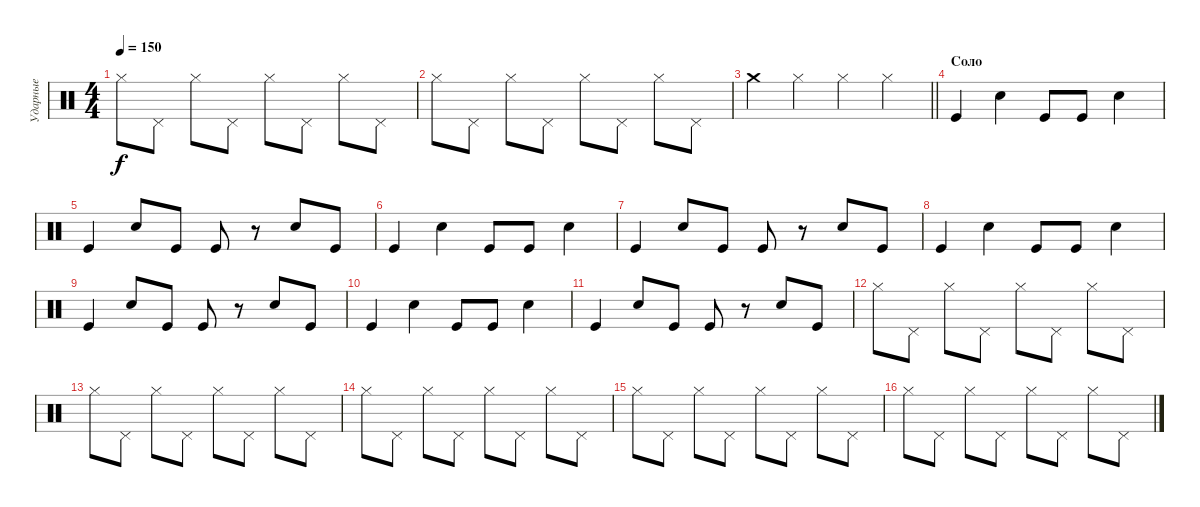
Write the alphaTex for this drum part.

\track ("Ударные" "Ударные") {instrument percussion}
\staff {score}
\articulation defaults
\ts (4 4)
\tempo 150
\clef neutral
\ks c "Hi-Hat (closed)".8{dy f} "Pedal Hi-Hat (hit)".8 "Hi-Hat (closed)".8 "Pedal Hi-Hat (hit)".8 "Hi-Hat (closed)".8 "Pedal Hi-Hat (hit)".8 "Hi-Hat (closed)".8 "Pedal Hi-Hat (hit)".8
|
"Hi-Hat (closed)".8 "Pedal Hi-Hat (hit)".8 "Hi-Hat (closed)".8 "Pedal Hi-Hat (hit)".8 "Hi-Hat (closed)".8 "Pedal Hi-Hat (hit)".8 "Hi-Hat (closed)".8 "Pedal Hi-Hat (hit)".8 |
\barLineRight lightlight "Crash medium (hit)".4 "Hi-Hat (closed)".4 "Hi-Hat (closed)".4 "Hi-Hat (closed)".4
|
\section ("" "Соло")
"Kick (hit)".4 "Snare (hit) 2".4 "Kick (hit)".8 "Kick (hit)".8 "Snare (hit) 2".4 |
"Kick (hit)".4 "Snare (hit) 2".8 "Kick (hit)".8 "Kick (hit)".8 r.8 "Snare (hit) 2".8 "Kick (hit)".8 |
"Kick (hit)".4 "Snare (hit) 2".4 "Kick (hit)".8 "Kick (hit)".8 "Snare (hit) 2".4 |
"Kick (hit)".4 "Snare (hit) 2".8 "Kick (hit)".8 "Kick (hit)".8 r.8 "Snare (hit) 2".8 "Kick (hit)".8 |
"Kick (hit)".4 "Snare (hit) 2".4 "Kick (hit)".8 "Kick (hit)".8 "Snare (hit) 2".4 |
"Kick (hit)".4 "Snare (hit) 2".8 "Kick (hit)".8 "Kick (hit)".8 r.8 "Snare (hit) 2".8 "Kick (hit)".8 |
"Kick (hit)".4 "Snare (hit) 2".4 "Kick (hit)".8 "Kick (hit)".8 "Snare (hit) 2".4 |
"Kick (hit)".4 "Snare (hit) 2".8 "Kick (hit)".8 "Kick (hit)".8 r.8 "Snare (hit) 2".8 "Kick (hit)".8 |
"Hi-Hat (closed)".8 "Pedal Hi-Hat (hit)".8 "Hi-Hat (closed)".8 "Pedal Hi-Hat (hit)".8 "Hi-Hat (closed)".8 "Pedal Hi-Hat (hit)".8 "Hi-Hat (closed)".8 "Pedal Hi-Hat (hit)".8 |
"Hi-Hat (closed)".8 "Pedal Hi-Hat (hit)".8 "Hi-Hat (closed)".8 "Pedal Hi-Hat (hit)".8 "Hi-Hat (closed)".8 "Pedal Hi-Hat (hit)".8 "Hi-Hat (closed)".8 "Pedal Hi-Hat (hit)".8 |
"Hi-Hat (closed)".8 "Pedal Hi-Hat (hit)".8 "Hi-Hat (closed)".8 "Pedal Hi-Hat (hit)".8 "Hi-Hat (closed)".8 "Pedal Hi-Hat (hit)".8 "Hi-Hat (closed)".8 "Pedal Hi-Hat (hit)".8 |
"Hi-Hat (closed)".8 "Pedal Hi-Hat (hit)".8 "Hi-Hat (closed)".8 "Pedal Hi-Hat (hit)".8 "Hi-Hat (closed)".8 "Pedal Hi-Hat (hit)".8 "Hi-Hat (closed)".8 "Pedal Hi-Hat (hit)".8 |
"Hi-Hat (closed)".8 "Pedal Hi-Hat (hit)".8 "Hi-Hat (closed)".8 "Pedal Hi-Hat (hit)".8 "Hi-Hat (closed)".8 "Pedal Hi-Hat (hit)".8 "Hi-Hat (closed)".8 "Pedal Hi-Hat (hit)".8
